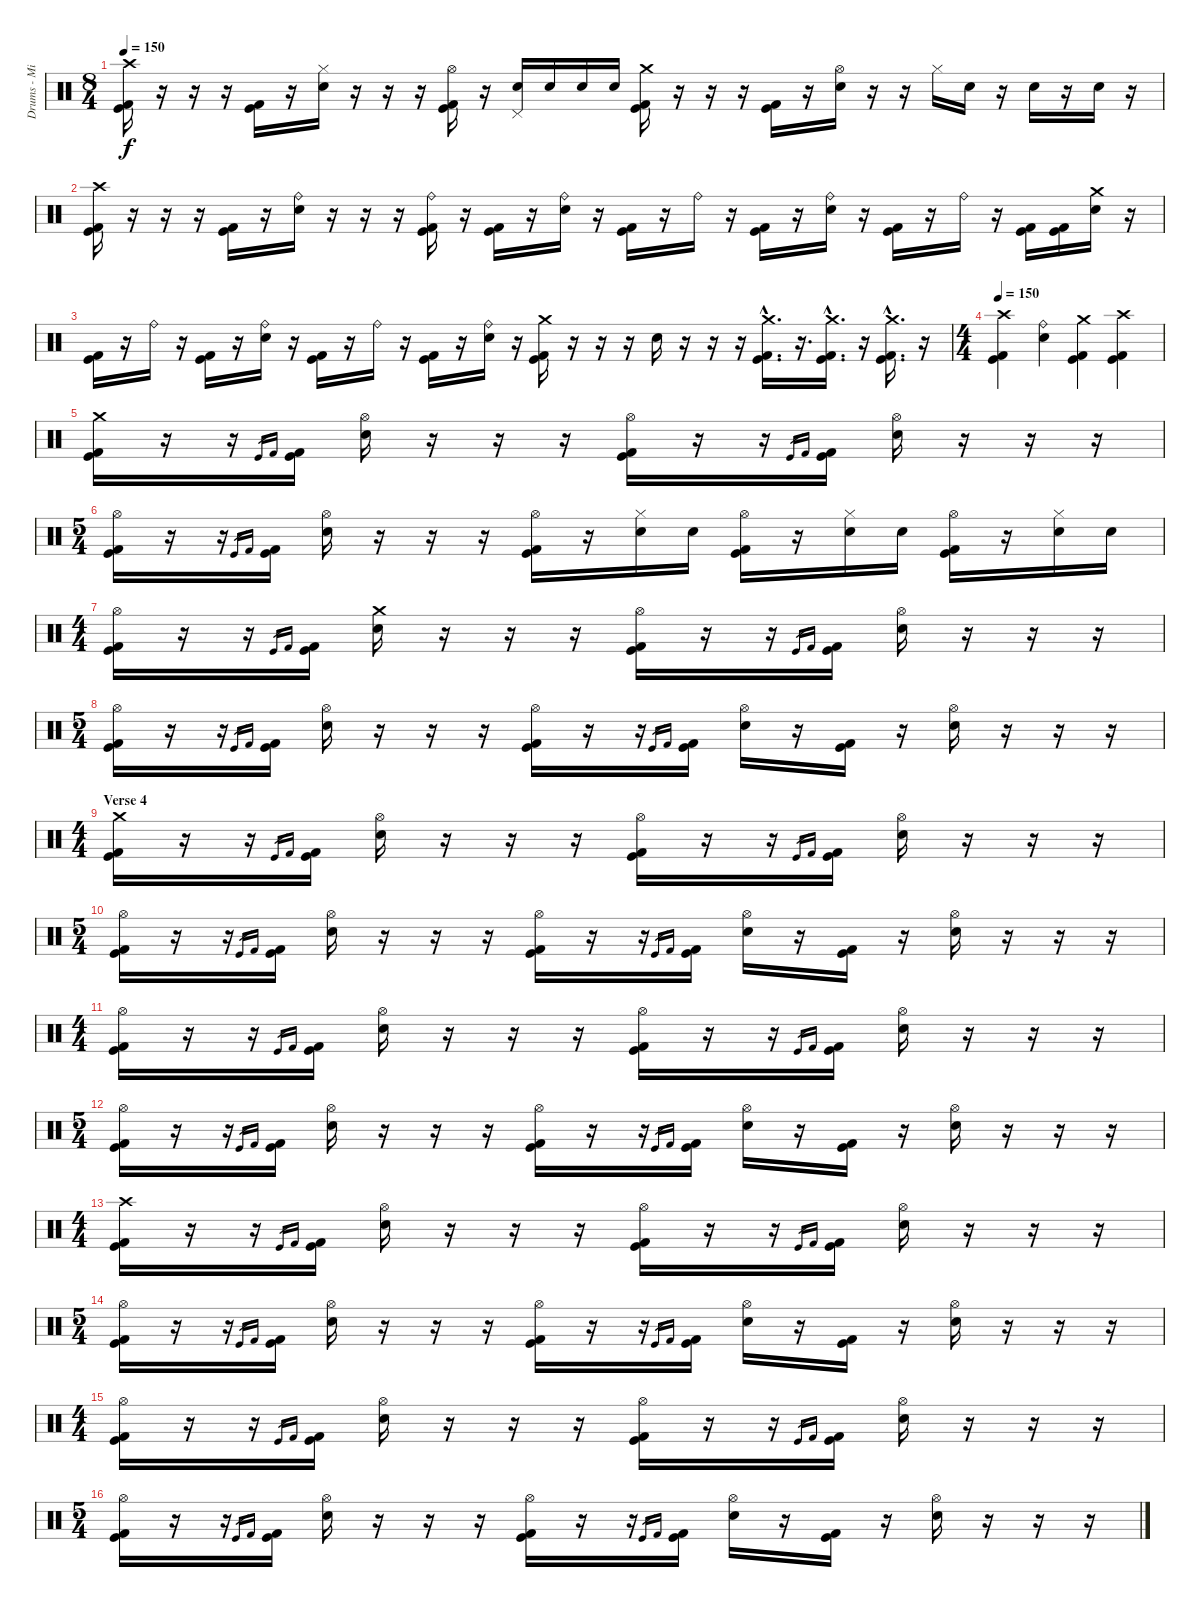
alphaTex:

\track ("Drums - Mikkey Dee" "Drums - Mi") {instrument percussion}
\staff {score}
\articulation defaults
\ts (8 4)
\tempo 150
\clef neutral
\ks c
("Crash high (hit)" "Kick (hit)" "Kick (hit) 2").16{dy f} r.16 r.16 r.16 ("Kick (hit)" "Kick (hit) 2").16 r.16 ("Hi-Hat (closed)" "Electric Snare (hit)").16 r.16 r.16 r.16 ("Hi-Hat (open)" "Kick (hit)" "Kick (hit) 2").16 r.16 ("Pedal Hi-Hat (hit)" "Electric Snare (hit)").16 "Electric Snare (hit)".16 "Electric Snare (hit)".16 "Electric Snare (hit)".16 ("Crash medium (hit)" "Kick (hit)" "Kick (hit) 2").16 r.16 r.16 r.16 ("Kick (hit)" "Kick (hit) 2").16 r.16 ("Hi-Hat (open)" "Electric Snare (hit)").16 r.16 r.16 "Hi-Hat (closed)".16 "Electric Snare (hit)".16 r.16 "Electric Snare (hit)".16 r.16 "Electric Snare (hit)".16 r.16 |
("Crash high (hit)" "Kick (hit)" "Kick (hit) 2").16 r.16 r.16 r.16 ("Kick (hit)" "Kick (hit) 2").16 r.16 ("Ride (bell)" "Electric Snare (hit)").16 r.16 r.16 r.16 ("Ride (bell)" "Kick (hit)" "Kick (hit) 2").16 r.16 ("Kick (hit)" "Kick (hit) 2").16 r.16 ("Ride (bell)" "Electric Snare (hit)").16 r.16 ("Kick (hit)" "Kick (hit) 2").16 r.16 "Ride (bell)".16 r.16 ("Kick (hit)" "Kick (hit) 2").16 r.16 ("Ride (bell)" "Electric Snare (hit)").16 r.16 ("Kick (hit)" "Kick (hit) 2").16 r.16 "Ride (bell)".16 r.16 ("Kick (hit)" "Kick (hit) 2").16 ("Kick (hit)" "Kick (hit) 2").16 ("Crash medium (hit)" "Electric Snare (hit)").16 r.16 |
("Kick (hit)" "Kick (hit) 2").16 r.16 "Ride (bell)".16 r.16 ("Kick (hit)" "Kick (hit) 2").16 r.16 ("Ride (bell)" "Electric Snare (hit)").16 r.16 ("Kick (hit)" "Kick (hit) 2").16 r.16 "Ride (bell)".16 r.16 ("Kick (hit)" "Kick (hit) 2").16 r.16 ("Ride (bell)" "Electric Snare (hit)").16 r.16 ("Crash medium (hit)" "Kick (hit)" "Kick (hit) 2").16 r.16 r.16 r.16 "Electric Snare (hit)".16 r.16 r.16 r.16 ("Crash medium (hit)"{hac} "Kick (hit)"{hac} "Kick (hit) 2"{hac}).16{d} r.16{d} ("Crash medium (hit)"{hac} "Kick (hit)"{hac} "Kick (hit) 2"{hac}).16{d} r.16 ("Crash medium (hit)"{hac} "Kick (hit)"{hac} "Kick (hit) 2"{hac}).16{d} r.16 |
\ts (4 4)
\tempo 150
("Crash high (hit)" "Kick (hit)" "Kick (hit) 2").4 ("Ride (bell)" "Electric Snare (hit)").4 ("Crash medium (hit)" "Kick (hit)" "Kick (hit) 2").4 ("Crash high (hit)" "Kick (hit)" "Kick (hit) 2").4 |
("Crash medium (hit)" "Kick (hit)" "Kick (hit) 2").16 r.16 r.16 "Kick (hit)".16{gr} "Kick (hit) 2".16{gr} ("Kick (hit)" "Kick (hit) 2").16 ("Hi-Hat (open)" "Electric Snare (hit)").16 r.16 r.16 r.16 ("Hi-Hat (open)" "Kick (hit)" "Kick (hit) 2").16 r.16 r.16 "Kick (hit)".16{gr} "Kick (hit) 2".16{gr} ("Kick (hit)" "Kick (hit) 2").16 ("Hi-Hat (open)" "Electric Snare (hit)").16 r.16 r.16 r.16 |
\ts (5 4)
("Hi-Hat (open)" "Kick (hit)" "Kick (hit) 2").16 r.16 r.16 "Kick (hit)".16{gr} "Kick (hit) 2".16{gr} ("Kick (hit)" "Kick (hit) 2").16 ("Hi-Hat (open)" "Electric Snare (hit)").16 r.16 r.16 r.16 ("Hi-Hat (open)" "Kick (hit)" "Kick (hit) 2").16 r.16 ("Hi-Hat (closed)" "Electric Snare (hit)").16 "Electric Snare (hit)".16 ("Hi-Hat (open)" "Kick (hit)" "Kick (hit) 2").16 r.16 ("Hi-Hat (closed)" "Electric Snare (hit)").16 "Electric Snare (hit)".16 ("Hi-Hat (open)" "Kick (hit)" "Kick (hit) 2").16 r.16 ("Hi-Hat (closed)" "Electric Snare (hit)").16 "Electric Snare (hit)".16 |
\ts (4 4)
("Hi-Hat (open)" "Kick (hit)" "Kick (hit) 2").16 r.16 r.16 "Kick (hit)".16{gr} "Kick (hit) 2".16{gr} ("Kick (hit)" "Kick (hit) 2").16 ("Crash medium (hit)" "Electric Snare (hit)").16 r.16 r.16 r.16 ("Hi-Hat (open)" "Kick (hit)" "Kick (hit) 2").16 r.16 r.16 "Kick (hit)".16{gr} "Kick (hit) 2".16{gr} ("Kick (hit)" "Kick (hit) 2").16 ("Hi-Hat (open)" "Electric Snare (hit)").16 r.16 r.16 r.16 |
\ts (5 4)
("Hi-Hat (open)" "Kick (hit)" "Kick (hit) 2").16 r.16 r.16 "Kick (hit)".16{gr} "Kick (hit) 2".16{gr} ("Kick (hit)" "Kick (hit) 2").16 ("Hi-Hat (open)" "Electric Snare (hit)").16 r.16 r.16 r.16 ("Hi-Hat (open)" "Kick (hit)" "Kick (hit) 2").16 r.16 r.16 "Kick (hit)".16{gr} "Kick (hit) 2".16{gr} ("Kick (hit)" "Kick (hit) 2").16 ("Hi-Hat (open)" "Electric Snare (hit)").16 r.16 ("Kick (hit)" "Kick (hit) 2").16 r.16 ("Hi-Hat (open)" "Electric Snare (hit)").16 r.16 r.16 r.16 |
\ts (4 4)
\section ("" "Verse 4")
("Crash medium (hit)" "Kick (hit)" "Kick (hit) 2").16 r.16 r.16 "Kick (hit)".16{gr} "Kick (hit) 2".16{gr} ("Kick (hit)" "Kick (hit) 2").16 ("Hi-Hat (open)" "Electric Snare (hit)").16 r.16 r.16 r.16 ("Hi-Hat (open)" "Kick (hit)" "Kick (hit) 2").16 r.16 r.16 "Kick (hit)".16{gr} "Kick (hit) 2".16{gr} ("Kick (hit)" "Kick (hit) 2").16 ("Hi-Hat (open)" "Electric Snare (hit)").16 r.16 r.16 r.16 |
\ts (5 4)
("Hi-Hat (open)" "Kick (hit)" "Kick (hit) 2").16 r.16 r.16 "Kick (hit)".16{gr} "Kick (hit) 2".16{gr} ("Kick (hit)" "Kick (hit) 2").16 ("Hi-Hat (open)" "Electric Snare (hit)").16 r.16 r.16 r.16 ("Hi-Hat (open)" "Kick (hit)" "Kick (hit) 2").16 r.16 r.16 "Kick (hit)".16{gr} "Kick (hit) 2".16{gr} ("Kick (hit)" "Kick (hit) 2").16 ("Hi-Hat (open)" "Electric Snare (hit)").16 r.16 ("Kick (hit)" "Kick (hit) 2").16 r.16 ("Hi-Hat (open)" "Electric Snare (hit)").16 r.16 r.16 r.16 |
\ts (4 4)
("Hi-Hat (open)" "Kick (hit)" "Kick (hit) 2").16 r.16 r.16 "Kick (hit)".16{gr} "Kick (hit) 2".16{gr} ("Kick (hit)" "Kick (hit) 2").16 ("Hi-Hat (open)" "Electric Snare (hit)").16 r.16 r.16 r.16 ("Hi-Hat (open)" "Kick (hit)" "Kick (hit) 2").16 r.16 r.16 "Kick (hit)".16{gr} "Kick (hit) 2".16{gr} ("Kick (hit)" "Kick (hit) 2").16 ("Hi-Hat (open)" "Electric Snare (hit)").16 r.16 r.16 r.16 |
\ts (5 4)
("Hi-Hat (open)" "Kick (hit)" "Kick (hit) 2").16 r.16 r.16 "Kick (hit)".16{gr} "Kick (hit) 2".16{gr} ("Kick (hit)" "Kick (hit) 2").16 ("Hi-Hat (open)" "Electric Snare (hit)").16 r.16 r.16 r.16 ("Hi-Hat (open)" "Kick (hit)" "Kick (hit) 2").16 r.16 r.16 "Kick (hit)".16{gr} "Kick (hit) 2".16{gr} ("Kick (hit)" "Kick (hit) 2").16 ("Hi-Hat (open)" "Electric Snare (hit)").16 r.16 ("Kick (hit)" "Kick (hit) 2").16 r.16 ("Hi-Hat (open)" "Electric Snare (hit)").16 r.16 r.16 r.16 |
\ts (4 4)
("Crash high (hit)" "Kick (hit)" "Kick (hit) 2").16 r.16 r.16 "Kick (hit)".16{gr} "Kick (hit) 2".16{gr} ("Kick (hit)" "Kick (hit) 2").16 ("Hi-Hat (open)" "Electric Snare (hit)").16 r.16 r.16 r.16 ("Hi-Hat (open)" "Kick (hit)" "Kick (hit) 2").16 r.16 r.16 "Kick (hit)".16{gr} "Kick (hit) 2".16{gr} ("Kick (hit)" "Kick (hit) 2").16 ("Hi-Hat (open)" "Electric Snare (hit)").16 r.16 r.16 r.16 |
\ts (5 4)
("Hi-Hat (open)" "Kick (hit)" "Kick (hit) 2").16 r.16 r.16 "Kick (hit)".16{gr} "Kick (hit) 2".16{gr} ("Kick (hit)" "Kick (hit) 2").16 ("Hi-Hat (open)" "Electric Snare (hit)").16 r.16 r.16 r.16 ("Hi-Hat (open)" "Kick (hit)" "Kick (hit) 2").16 r.16 r.16 "Kick (hit)".16{gr} "Kick (hit) 2".16{gr} ("Kick (hit)" "Kick (hit) 2").16 ("Hi-Hat (open)" "Electric Snare (hit)").16 r.16 ("Kick (hit)" "Kick (hit) 2").16 r.16 ("Hi-Hat (open)" "Electric Snare (hit)").16 r.16 r.16 r.16 |
\ts (4 4)
("Hi-Hat (open)" "Kick (hit)" "Kick (hit) 2").16 r.16 r.16 "Kick (hit)".16{gr} "Kick (hit) 2".16{gr} ("Kick (hit)" "Kick (hit) 2").16 ("Hi-Hat (open)" "Electric Snare (hit)").16 r.16 r.16 r.16 ("Hi-Hat (open)" "Kick (hit)" "Kick (hit) 2").16 r.16 r.16 "Kick (hit)".16{gr} "Kick (hit) 2".16{gr} ("Kick (hit)" "Kick (hit) 2").16 ("Hi-Hat (open)" "Electric Snare (hit)").16 r.16 r.16 r.16 |
\ts (5 4)
("Hi-Hat (open)" "Kick (hit)" "Kick (hit) 2").16 r.16 r.16 "Kick (hit)".16{gr} "Kick (hit) 2".16{gr} ("Kick (hit)" "Kick (hit) 2").16 ("Hi-Hat (open)" "Electric Snare (hit)").16 r.16 r.16 r.16 ("Hi-Hat (open)" "Kick (hit)" "Kick (hit) 2").16 r.16 r.16 "Kick (hit)".16{gr} "Kick (hit) 2".16{gr} ("Kick (hit)" "Kick (hit) 2").16 ("Hi-Hat (open)" "Electric Snare (hit)").16 r.16 ("Kick (hit)" "Kick (hit) 2").16 r.16 ("Hi-Hat (open)" "Electric Snare (hit)").16 r.16 r.16 r.16
